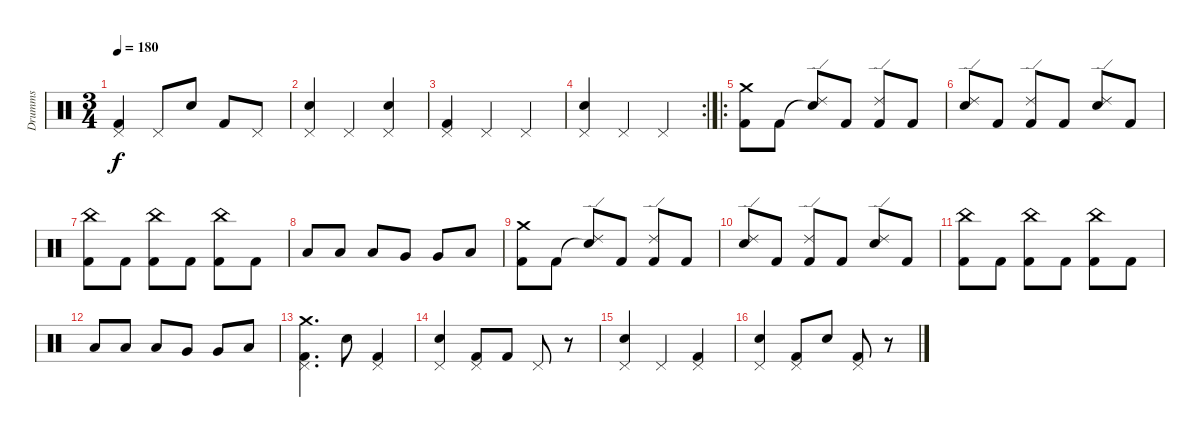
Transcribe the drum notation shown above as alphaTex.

\track ("Drumms" "Drumms") {instrument percussion}
\staff {score}
\articulation defaults
\ts (3 4)
\tempo 180
\clef neutral
\ks c
("Pedal Hi-Hat (hit)" "Kick (hit) 2").4{dy f} "Pedal Hi-Hat (hit)".8 "Snare (hit) 2".8 "Kick (hit) 2".8 "Pedal Hi-Hat (hit)".8 |
("Pedal Hi-Hat (hit)" "Snare (hit) 2").4 "Pedal Hi-Hat (hit)".4 ("Pedal Hi-Hat (hit)" "Snare (hit) 2").4 |
("Pedal Hi-Hat (hit)" "Kick (hit) 2").4 "Pedal Hi-Hat (hit)".4 "Pedal Hi-Hat (hit)".4 |
\rc 2
("Pedal Hi-Hat (hit)" "Snare (hit) 2").4 "Pedal Hi-Hat (hit)".4 "Pedal Hi-Hat (hit)".4 |
\ro
("Kick (hit) 2" "Crash medium (hit)").8 "Kick (hit) 2".8 ("Snare (hit)"{t} "Ride (edge) 2").8 "Kick (hit) 2".8 ("Kick (hit) 2" "Ride (edge) 2").8 "Kick (hit) 2".8 |
("Snare (hit) 2" "Ride (edge) 2").8 "Kick (hit) 2".8 ("Kick (hit) 2" "Ride (edge) 2").8 "Kick (hit) 2".8 ("Snare (hit) 2" "Ride (edge) 2").8 "Kick (hit) 2".8 |
("Kick (hit) 2" "China (hit)").8 "Kick (hit) 2".8 ("Kick (hit) 2" "China (hit)").8 "Kick (hit) 2".8 ("Kick (hit) 2" "China (hit)").8 "Kick (hit) 2".8 |
"Low Tom (hit)".8 "Low Tom (hit)".8 "Low Tom (hit)".8 "Very Low Tom (hit)".8 "Very Low Tom (hit)".8 "Low Floor Tom (hit)".8 |
("Kick (hit) 2" "Crash medium (hit)").8 "Kick (hit) 2".8 ("Snare (hit)"{t} "Ride (edge) 2").8 "Kick (hit) 2".8 ("Kick (hit) 2" "Ride (edge) 2").8 "Kick (hit) 2".8 |
("Snare (hit) 2" "Ride (edge) 2").8 "Kick (hit) 2".8 ("Kick (hit) 2" "Ride (edge) 2").8 "Kick (hit) 2".8 ("Snare (hit) 2" "Ride (edge) 2").8 "Kick (hit) 2".8 |
("Kick (hit) 2" "China (hit)").8 "Kick (hit) 2".8 ("Kick (hit) 2" "China (hit)").8 "Kick (hit) 2".8 ("Kick (hit) 2" "China (hit)").8 "Kick (hit) 2".8 |
"Low Tom (hit)".8 "Low Tom (hit)".8 "Low Tom (hit)".8 "Very Low Tom (hit)".8 "Very Low Tom (hit)".8 "Low Floor Tom (hit)".8 |
("Kick (hit) 2" "Crash medium (hit)" "Pedal Hi-Hat (hit)").4{d} "Snare (hit) 2".8 ("Kick (hit) 2" "Pedal Hi-Hat (hit)").4 |
("Snare (hit) 2" "Pedal Hi-Hat (hit)").4 ("Kick (hit) 2" "Pedal Hi-Hat (hit)").8 "Kick (hit) 2".8 "Pedal Hi-Hat (hit)".8 r.8 |
("Snare (hit) 2" "Pedal Hi-Hat (hit)").4 "Pedal Hi-Hat (hit)".4 ("Kick (hit) 2" "Pedal Hi-Hat (hit)").4 |
("Snare (hit) 2" "Pedal Hi-Hat (hit)").4 ("Kick (hit) 2" "Pedal Hi-Hat (hit)").8 "Snare (hit) 2".8 ("Kick (hit) 2" "Pedal Hi-Hat (hit)").8 r.8
